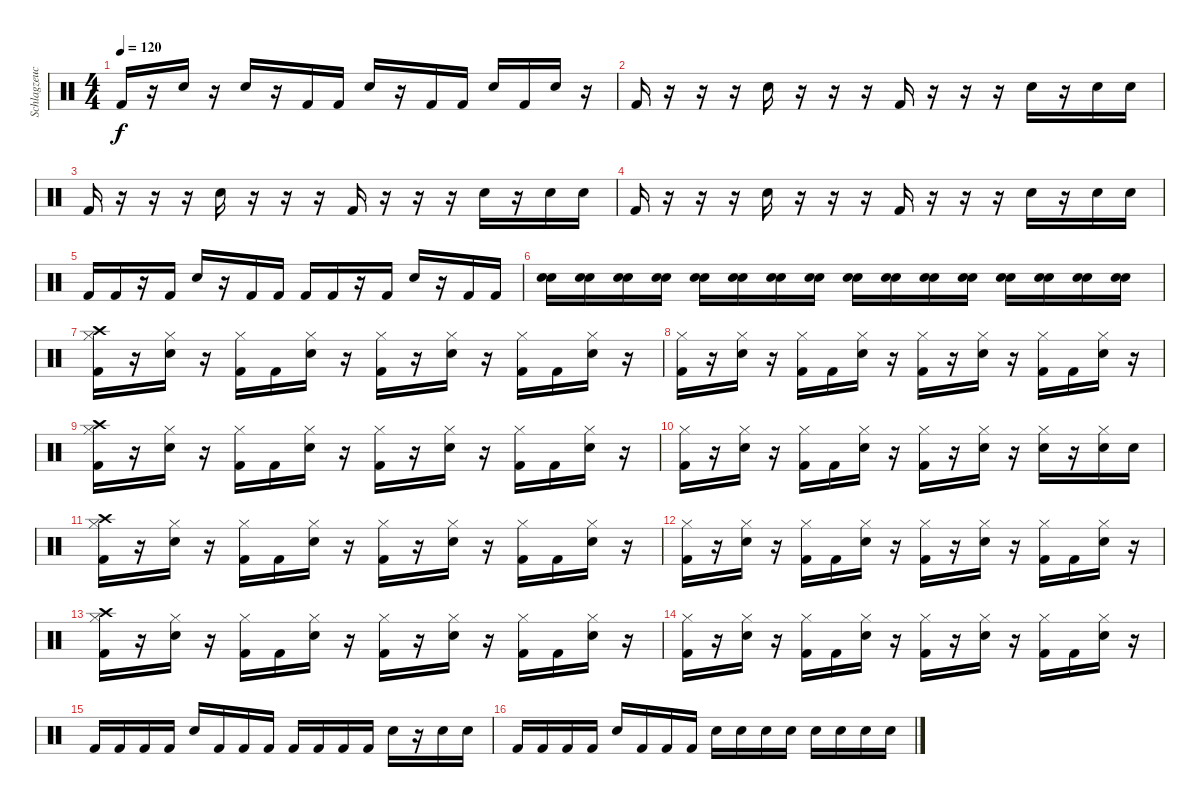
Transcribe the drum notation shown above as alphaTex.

\track ("Schlagzeuch" "Schlagzeuc") {instrument percussion}
\staff {score}
\articulation defaults
\ts (4 4)
\tempo 120
\clef neutral
\ks c "Kick (hit) 2".16{dy f}
r.16 "Snare (hit) 2".16 r.16 "Snare (hit) 2".16 r.16 "Kick (hit) 2".16 "Kick (hit) 2".16 "Snare (hit) 2".16 r.16 "Kick (hit) 2".16 "Kick (hit) 2".16 "Snare (hit) 2".16 "Kick (hit) 2".16 "Snare (hit) 2".16 r.16 |
"Kick (hit) 2".16 r.16 r.16 r.16 "Snare (hit) 2".16 r.16 r.16 r.16 "Kick (hit) 2".16 r.16 r.16 r.16 "Snare (hit) 2".16 r.16 "Snare (hit) 2".16 "Snare (hit) 2".16 |
"Kick (hit) 2".16 r.16 r.16 r.16 "Snare (hit) 2".16 r.16 r.16 r.16 "Kick (hit) 2".16 r.16 r.16 r.16 "Snare (hit) 2".16 r.16 "Snare (hit) 2".16 "Snare (hit) 2".16 |
"Kick (hit) 2".16 r.16 r.16 r.16 "Snare (hit) 2".16 r.16 r.16 r.16 "Kick (hit) 2".16 r.16 r.16 r.16 "Snare (hit) 2".16 r.16 "Snare (hit) 2".16 "Snare (hit) 2".16 |
"Kick (hit) 2".16 "Kick (hit) 2".16 r.16 "Kick (hit) 2".16 "Snare (hit) 2".16 r.16 "Kick (hit) 2".16 "Kick (hit) 2".16 "Kick (hit) 2".16 "Kick (hit) 2".16 r.16 "Kick (hit) 2".16 "Snare (hit) 2".16 r.16 "Kick (hit) 2".16 "Kick (hit) 2".16 |
("Snare (hit) 2" "Snare (hit) 2").16 ("Snare (hit) 2" "Snare (hit) 2").16 ("Snare (hit) 2" "Snare (hit) 2").16 ("Snare (hit) 2" "Snare (hit) 2").16 ("Snare (hit) 2" "Snare (hit) 2").16 ("Snare (hit) 2" "Snare (hit) 2").16 ("Snare (hit) 2" "Snare (hit) 2").16 ("Snare (hit) 2" "Snare (hit) 2").16 ("Snare (hit) 2" "Snare (hit) 2").16 ("Snare (hit) 2" "Snare (hit) 2").16 ("Snare (hit) 2" "Snare (hit) 2").16 ("Snare (hit) 2" "Snare (hit) 2").16 ("Snare (hit) 2" "Snare (hit) 2").16 ("Snare (hit) 2" "Snare (hit) 2").16 ("Snare (hit) 2" "Snare (hit) 2").16 ("Snare (hit) 2" "Snare (hit) 2").16 |
("Hi-Hat (closed)" "Kick (hit) 2" "Crash high (hit)").16 r.16 ("Hi-Hat (closed)" "Snare (hit) 2").16 r.16 ("Hi-Hat (closed)" "Kick (hit) 2").16 "Kick (hit) 2".16 ("Hi-Hat (closed)" "Snare (hit) 2").16 r.16 ("Hi-Hat (closed)" "Kick (hit) 2").16 r.16 ("Hi-Hat (closed)" "Snare (hit) 2").16 r.16 ("Hi-Hat (closed)" "Kick (hit) 2").16 "Kick (hit) 2".16 ("Hi-Hat (closed)" "Snare (hit) 2").16 r.16 |
("Hi-Hat (closed)" "Kick (hit) 2").16 r.16 ("Hi-Hat (closed)" "Snare (hit) 2").16 r.16 ("Hi-Hat (closed)" "Kick (hit) 2").16 "Kick (hit) 2".16 ("Hi-Hat (closed)" "Snare (hit) 2").16 r.16 ("Hi-Hat (closed)" "Kick (hit) 2").16 r.16 ("Hi-Hat (closed)" "Snare (hit) 2").16 r.16 ("Hi-Hat (closed)" "Kick (hit) 2").16 "Kick (hit) 2".16 ("Hi-Hat (closed)" "Snare (hit) 2").16 r.16 |
("Hi-Hat (closed)" "Kick (hit) 2" "Crash high (hit)").16 r.16 ("Hi-Hat (closed)" "Snare (hit) 2").16 r.16 ("Hi-Hat (closed)" "Kick (hit) 2").16 "Kick (hit) 2".16 ("Hi-Hat (closed)" "Snare (hit) 2").16 r.16 ("Hi-Hat (closed)" "Kick (hit) 2").16 r.16 ("Hi-Hat (closed)" "Snare (hit) 2").16 r.16 ("Hi-Hat (closed)" "Kick (hit) 2").16 "Kick (hit) 2".16 ("Hi-Hat (closed)" "Snare (hit) 2").16 r.16 |
("Hi-Hat (closed)" "Kick (hit) 2").16 r.16 ("Hi-Hat (closed)" "Snare (hit) 2").16 r.16 ("Hi-Hat (closed)" "Kick (hit) 2").16 "Kick (hit) 2".16 ("Hi-Hat (closed)" "Snare (hit) 2").16 r.16 ("Hi-Hat (closed)" "Kick (hit) 2").16 r.16 ("Hi-Hat (closed)" "Snare (hit) 2").16 r.16 ("Hi-Hat (closed)" "Snare (hit) 2").16 r.16 ("Hi-Hat (closed)" "Snare (hit) 2").16 "Snare (hit) 2".16 |
("Hi-Hat (closed)" "Kick (hit) 2" "Crash high (hit)").16 r.16 ("Hi-Hat (closed)" "Snare (hit) 2").16 r.16 ("Hi-Hat (closed)" "Kick (hit) 2").16 "Kick (hit) 2".16 ("Hi-Hat (closed)" "Snare (hit) 2").16 r.16 ("Hi-Hat (closed)" "Kick (hit) 2").16 r.16 ("Hi-Hat (closed)" "Snare (hit) 2").16 r.16 ("Hi-Hat (closed)" "Kick (hit) 2").16 "Kick (hit) 2".16 ("Hi-Hat (closed)" "Snare (hit) 2").16 r.16 |
("Hi-Hat (closed)" "Kick (hit) 2").16 r.16 ("Hi-Hat (closed)" "Snare (hit) 2").16 r.16 ("Hi-Hat (closed)" "Kick (hit) 2").16 "Kick (hit) 2".16 ("Hi-Hat (closed)" "Snare (hit) 2").16 r.16 ("Hi-Hat (closed)" "Kick (hit) 2").16 r.16 ("Hi-Hat (closed)" "Snare (hit) 2").16 r.16 ("Hi-Hat (closed)" "Kick (hit) 2").16 "Kick (hit) 2".16 ("Hi-Hat (closed)" "Snare (hit) 2").16 r.16 |
("Hi-Hat (closed)" "Kick (hit) 2" "Crash high (hit)").16 r.16 ("Hi-Hat (closed)" "Snare (hit) 2").16 r.16 ("Hi-Hat (closed)" "Kick (hit) 2").16 "Kick (hit) 2".16 ("Hi-Hat (closed)" "Snare (hit) 2").16 r.16 ("Hi-Hat (closed)" "Kick (hit) 2").16 r.16 ("Hi-Hat (closed)" "Snare (hit) 2").16 r.16 ("Hi-Hat (closed)" "Kick (hit) 2").16 "Kick (hit) 2".16 ("Hi-Hat (closed)" "Snare (hit) 2").16 r.16 |
("Hi-Hat (closed)" "Kick (hit) 2").16 r.16 ("Hi-Hat (closed)" "Snare (hit) 2").16 r.16 ("Hi-Hat (closed)" "Kick (hit) 2").16 "Kick (hit) 2".16 ("Hi-Hat (closed)" "Snare (hit) 2").16 r.16 ("Hi-Hat (closed)" "Kick (hit) 2").16 r.16 ("Hi-Hat (closed)" "Snare (hit) 2").16 r.16 ("Hi-Hat (closed)" "Kick (hit) 2").16 "Kick (hit) 2".16 ("Hi-Hat (closed)" "Snare (hit) 2").16 r.16 |
"Kick (hit) 2".16 "Kick (hit) 2".16 "Kick (hit) 2".16 "Kick (hit) 2".16 "Snare (hit) 2".16 "Kick (hit) 2".16 "Kick (hit) 2".16 "Kick (hit) 2".16 "Kick (hit) 2".16 "Kick (hit) 2".16 "Kick (hit) 2".16 "Kick (hit) 2".16 "Snare (hit) 2".16 r.16 "Snare (hit) 2".16 "Snare (hit) 2".16 |
"Kick (hit) 2".16 "Kick (hit) 2".16 "Kick (hit) 2".16 "Kick (hit) 2".16 "Snare (hit) 2".16 "Kick (hit) 2".16 "Kick (hit) 2".16 "Kick (hit) 2".16 "Snare (hit) 2".16 "Snare (hit) 2".16 "Snare (hit) 2".16 "Snare (hit) 2".16 "Snare (hit) 2".16 "Snare (hit) 2".16 "Snare (hit) 2".16 "Snare (hit) 2".16
